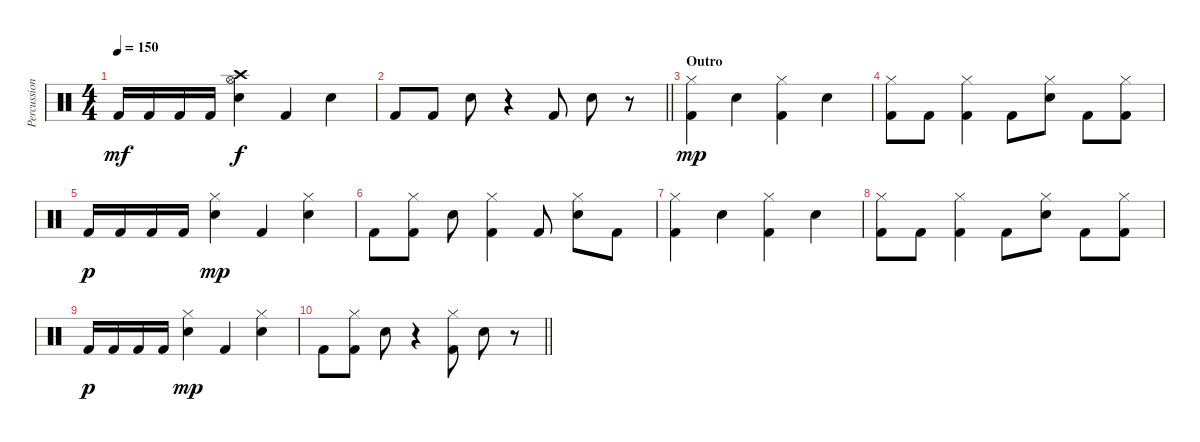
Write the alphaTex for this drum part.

\track ("Percussion" "Percussion") {instrument percussion}
\staff {score}
\articulation defaults
\ts (4 4)
\tempo 150
\clef neutral
\ks c "Kick (hit) 2".16{dy mf} "Kick (hit) 2".16 "Kick (hit) 2".16 "Kick (hit) 2".16
("Crash high (hit)" "Electric Snare (hit)" "Hi-Hat (open)").4{dy f} "Kick (hit) 2".4 "Electric Snare (hit)".4 |
\barLineRight lightlight "Kick (hit) 2".8 "Kick (hit) 2".8 "Electric Snare (hit)".8
r.4 "Kick (hit) 2".8 "Electric Snare (hit)".8 r.8 |
\section ("" "Outro")
("Hi-Hat (closed)" "Kick (hit) 2").4{dy mp} "Electric Snare (hit)".4 ("Hi-Hat (closed)" "Kick (hit) 2").4 "Electric Snare (hit)".4 |
("Hi-Hat (closed)" "Kick (hit) 2").8 "Kick (hit) 2".8 ("Hi-Hat (closed)" "Kick (hit) 2").4 "Kick (hit) 2".8 ("Hi-Hat (closed)" "Electric Snare (hit)").8 "Kick (hit) 2".8 ("Hi-Hat (closed)" "Kick (hit) 2").8 |
"Kick (hit) 2".16{dy p} "Kick (hit) 2".16 "Kick (hit) 2".16 "Kick (hit) 2".16 ("Hi-Hat (closed)" "Electric Snare (hit)").4{dy mp} "Kick (hit) 2".4 ("Hi-Hat (closed)" "Electric Snare (hit)").4 |
"Kick (hit) 2".8 ("Hi-Hat (closed)" "Kick (hit) 2").8 "Electric Snare (hit)".8 ("Hi-Hat (closed)" "Kick (hit) 2").4 "Kick (hit) 2".8 ("Hi-Hat (closed)" "Electric Snare (hit)").8 "Kick (hit) 2".8 |
("Hi-Hat (closed)" "Kick (hit) 2").4 "Electric Snare (hit)".4 ("Hi-Hat (closed)" "Kick (hit) 2").4 "Electric Snare (hit)".4 |
("Hi-Hat (closed)" "Kick (hit) 2").8 "Kick (hit) 2".8 ("Hi-Hat (closed)" "Kick (hit) 2").4 "Kick (hit) 2".8 ("Hi-Hat (closed)" "Electric Snare (hit)").8 "Kick (hit) 2".8 ("Hi-Hat (closed)" "Kick (hit) 2").8 |
"Kick (hit) 2".16{dy p} "Kick (hit) 2".16 "Kick (hit) 2".16 "Kick (hit) 2".16 ("Hi-Hat (closed)" "Electric Snare (hit)").4{dy mp} "Kick (hit) 2".4 ("Hi-Hat (closed)" "Electric Snare (hit)").4 |
\barLineRight lightlight "Kick (hit) 2".8
("Hi-Hat (closed)" "Kick (hit) 2").8 "Electric Snare (hit)".8 r.4 ("Hi-Hat (closed)" "Kick (hit) 2").8 "Electric Snare (hit)".8 r.8
